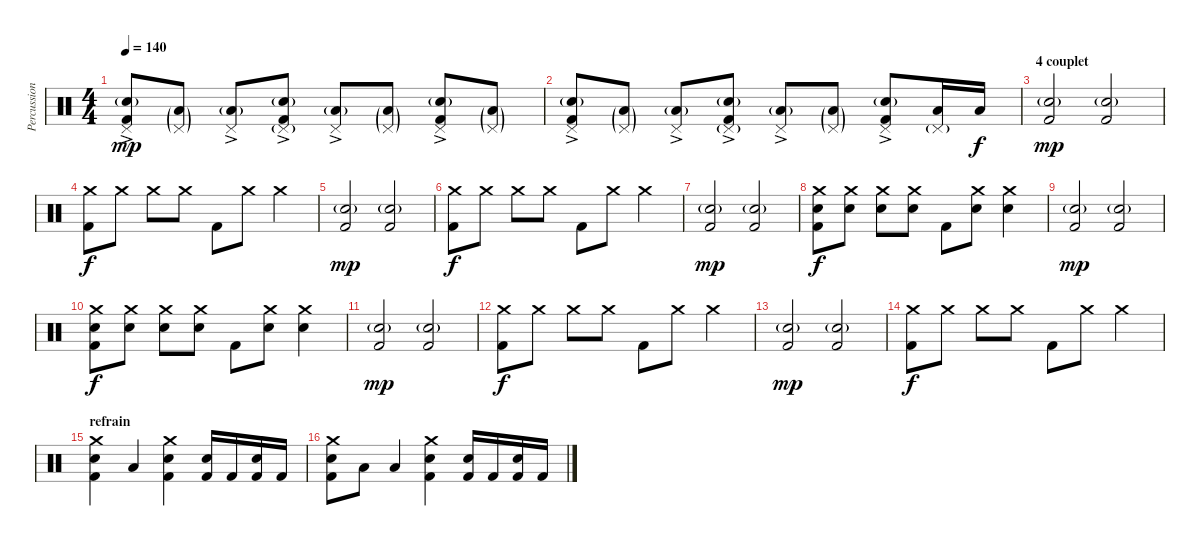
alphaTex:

\track ("Percussions" "Percussion") {instrument percussion}
\staff {score}
\articulation defaults
\ts (4 4)
\tempo 140
\clef neutral
\ks c
("Pedal Hi-Hat (hit)"{ac} "Electric Snare (hit)"{g ac} "Kick (hit) 2").8{dy mp} ("Pedal Hi-Hat (hit)"{g} "Low Tom (hit)"{g}).8 ("Pedal Hi-Hat (hit)"{ac} "Low Tom (hit)"{g}).8 ("Pedal Hi-Hat (hit)"{g} "Electric Snare (hit)"{g ac} "Kick (hit) 2").8 ("Pedal Hi-Hat (hit)"{ac} "Low Tom (hit)"{g}).8 ("Pedal Hi-Hat (hit)"{g} "Low Tom (hit)"{g}).8 ("Pedal Hi-Hat (hit)"{ac} "Electric Snare (hit)"{g ac} "Kick (hit) 2").8 ("Pedal Hi-Hat (hit)"{g} "Low Tom (hit)"{g}).8 |
("Pedal Hi-Hat (hit)"{ac} "Electric Snare (hit)"{g ac} "Kick (hit) 2").8 ("Pedal Hi-Hat (hit)"{g} "Low Tom (hit)"{g}).8 ("Pedal Hi-Hat (hit)"{ac} "Low Tom (hit)"{g}).8 ("Pedal Hi-Hat (hit)"{g} "Electric Snare (hit)"{g ac} "Kick (hit) 2").8 ("Pedal Hi-Hat (hit)"{ac} "Low Tom (hit)"{g}).8 ("Pedal Hi-Hat (hit)"{g} "Low Tom (hit)"{g}).8 ("Pedal Hi-Hat (hit)"{ac} "Electric Snare (hit)"{g ac} "Kick (hit) 2").8 ("Pedal Hi-Hat (hit)"{g} "Low Tom (hit)").16 "Low Tom (hit)".16{dy f} |
\section ("" "4 couplet")
("Electric Snare (hit)"{g} "Kick (hit) 2").2{dy mp} ("Electric Snare (hit)"{g} "Kick (hit) 2").2 |
("Crash medium (hit)" "Kick (hit) 2").8{dy f} "Crash medium (hit)".8 "Crash medium (hit)".8 "Crash medium (hit)".8 "Kick (hit) 2".8 "Crash medium (hit)".8 "Crash medium (hit)".4 |
("Electric Snare (hit)"{g} "Kick (hit) 2").2{dy mp} ("Electric Snare (hit)"{g} "Kick (hit) 2").2 |
("Crash medium (hit)" "Kick (hit) 2").8{dy f} "Crash medium (hit)".8 "Crash medium (hit)".8 "Crash medium (hit)".8 "Kick (hit) 2".8 "Crash medium (hit)".8 "Crash medium (hit)".4 |
("Electric Snare (hit)"{g} "Kick (hit) 2").2{dy mp} ("Electric Snare (hit)"{g} "Kick (hit) 2").2 |
("Crash medium (hit)" "Electric Snare (hit)" "Kick (hit) 2").8{dy f} ("Crash medium (hit)" "Electric Snare (hit)").8 ("Crash medium (hit)" "Electric Snare (hit)").8 ("Crash medium (hit)" "Electric Snare (hit)").8 "Kick (hit) 2".8 ("Crash medium (hit)" "Electric Snare (hit)").8 ("Crash medium (hit)" "Electric Snare (hit)").4 |
("Electric Snare (hit)"{g} "Kick (hit) 2").2{dy mp} ("Electric Snare (hit)"{g} "Kick (hit) 2").2 |
("Crash medium (hit)" "Electric Snare (hit)" "Kick (hit) 2").8{dy f} ("Crash medium (hit)" "Electric Snare (hit)").8 ("Crash medium (hit)" "Electric Snare (hit)").8 ("Crash medium (hit)" "Electric Snare (hit)").8 "Kick (hit) 2".8 ("Crash medium (hit)" "Electric Snare (hit)").8 ("Crash medium (hit)" "Electric Snare (hit)").4 |
("Electric Snare (hit)"{g} "Kick (hit) 2").2{dy mp} ("Electric Snare (hit)"{g} "Kick (hit) 2").2 |
("Crash medium (hit)" "Kick (hit) 2").8{dy f} "Crash medium (hit)".8 "Crash medium (hit)".8 "Crash medium (hit)".8 "Kick (hit) 2".8 "Crash medium (hit)".8 "Crash medium (hit)".4 |
("Electric Snare (hit)"{g} "Kick (hit) 2").2{dy mp} ("Electric Snare (hit)"{g} "Kick (hit) 2").2 |
("Crash medium (hit)" "Kick (hit) 2").8{dy f} "Crash medium (hit)".8 "Crash medium (hit)".8 "Crash medium (hit)".8 "Kick (hit) 2".8 "Crash medium (hit)".8 "Crash medium (hit)".4 |
\section ("" "refrain")
("Crash medium (hit)" "Electric Snare (hit)" "Kick (hit) 2").4 "Low Tom (hit)".4 ("Crash medium (hit)" "Electric Snare (hit)" "Kick (hit) 2").4 ("Electric Snare (hit)" "Kick (hit) 2").16 "Kick (hit) 2".16 ("Electric Snare (hit)" "Kick (hit) 2").16 "Kick (hit) 2".16 |
("Crash medium (hit)" "Electric Snare (hit)" "Kick (hit) 2").8 "Low Tom (hit)".8 "Low Tom (hit)".4 ("Crash medium (hit)" "Electric Snare (hit)" "Kick (hit) 2").4 ("Electric Snare (hit)" "Kick (hit) 2").16 "Kick (hit) 2".16 ("Electric Snare (hit)" "Kick (hit) 2").16 "Kick (hit) 2".16
